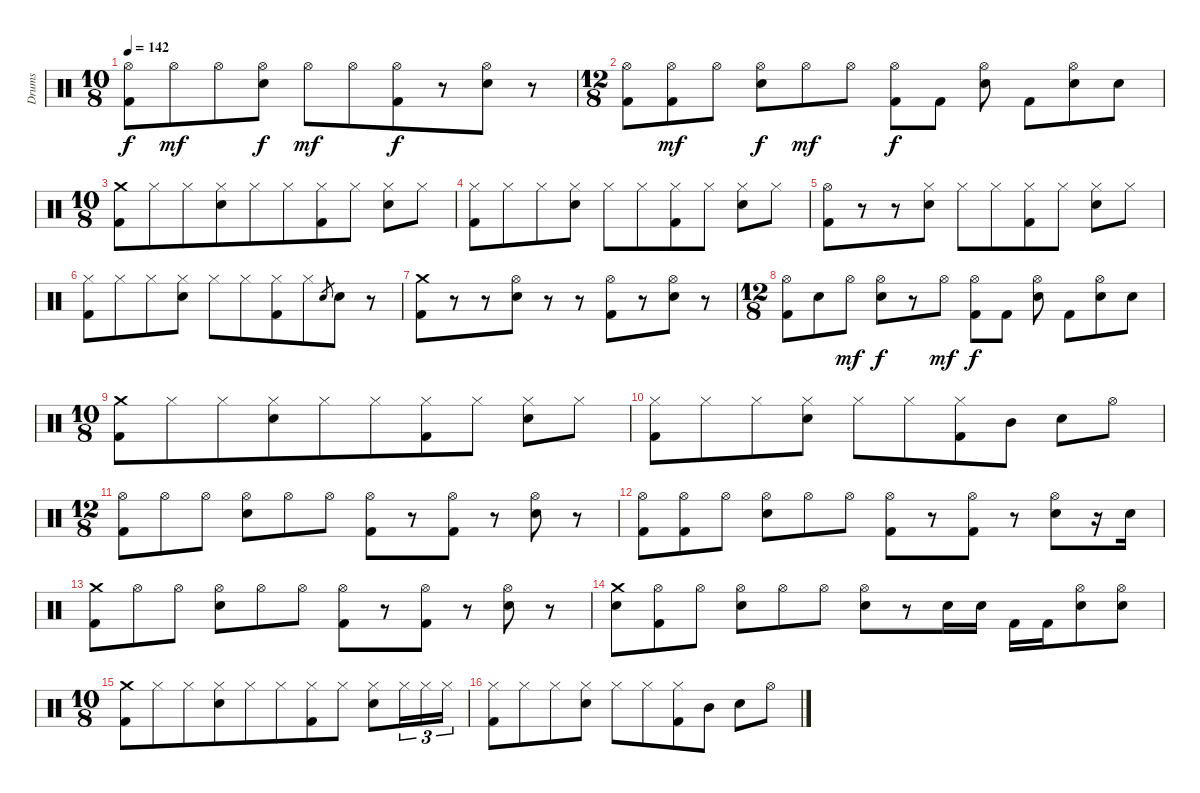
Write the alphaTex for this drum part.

\track ("Drums" "Drums") {instrument percussion}
\staff {score}
\articulation defaults
\ts (10 8)
\tempo 142
\clef neutral
\ks c
("Hi-Hat (open)" "Kick (hit) 2").8{dy f} "Hi-Hat (open)".8{dy mf} "Hi-Hat (open)".8 ("Hi-Hat (open)" "Electric Snare (hit)").8{dy f} "Hi-Hat (open)".8{dy mf} "Hi-Hat (open)".8 ("Hi-Hat (open)" "Kick (hit) 2").8{dy f beam merge} r.8{beam split} ("Hi-Hat (open)" "Electric Snare (hit)").8 r.8 |
\ts (12 8)
("Hi-Hat (open)" "Kick (hit) 2").8 ("Hi-Hat (open)" "Kick (hit) 2").8{dy mf} "Hi-Hat (open)".8 ("Hi-Hat (open)" "Electric Snare (hit)").8{dy f} "Hi-Hat (open)".8{dy mf} "Hi-Hat (open)".8 ("Hi-Hat (open)" "Kick (hit) 2").8{dy f beam merge} "Kick (hit) 2".8{beam split} ("Hi-Hat (open)" "Electric Snare (hit)").8 "Kick (hit) 2".8 ("Hi-Hat (open)" "Electric Snare (hit)").8 "Electric Snare (hit)".8 |
\ts (10 8)
("Crash medium (hit)" "Kick (hit) 2").8{beam merge} "Hi-Hat (closed)".8{beam merge} "Hi-Hat (closed)".8 ("Hi-Hat (closed)" "Electric Snare (hit)").8{beam merge} "Hi-Hat (closed)".8{beam merge} "Hi-Hat (closed)".8 ("Hi-Hat (closed)" "Kick (hit) 2").8{beam merge} "Hi-Hat (closed)".8{beam split} ("Hi-Hat (closed)" "Electric Snare (hit)").8{beam merge} "Hi-Hat (closed)".8 |
("Hi-Hat (closed)" "Kick (hit) 2").8 "Hi-Hat (closed)".8 "Hi-Hat (closed)".8 ("Hi-Hat (closed)" "Electric Snare (hit)").8 "Hi-Hat (closed)".8 "Hi-Hat (closed)".8 ("Hi-Hat (closed)" "Kick (hit) 2").8{beam merge} "Hi-Hat (closed)".8{beam split} ("Hi-Hat (closed)" "Electric Snare (hit)").8 "Hi-Hat (closed)".8 |
("Hi-Hat (open)" "Kick (hit) 2").8 r.8 r.8 ("Hi-Hat (closed)" "Electric Snare (hit)").8 "Hi-Hat (closed)".8 "Hi-Hat (closed)".8 ("Hi-Hat (closed)" "Kick (hit) 2").8{beam merge} "Hi-Hat (closed)".8{beam split} ("Hi-Hat (closed)" "Electric Snare (hit)").8{beam merge} "Hi-Hat (closed)".8 |
("Hi-Hat (closed)" "Kick (hit) 2").8 "Hi-Hat (closed)".8 "Hi-Hat (closed)".8 ("Hi-Hat (closed)" "Electric Snare (hit)").8 "Hi-Hat (closed)".8 "Hi-Hat (closed)".8 ("Hi-Hat (closed)" "Kick (hit) 2").8{beam merge} "Hi-Hat (closed)".8 "Electric Snare (hit)".8{gr beam split} "Electric Snare (hit)".8 r.8 |
("Crash medium (hit)" "Kick (hit) 2").8 r.8 r.8 ("Hi-Hat (open)" "Electric Snare (hit)").8 r.8 r.8 ("Hi-Hat (open)" "Kick (hit) 2").8{beam merge} r.8{beam split} ("Hi-Hat (open)" "Electric Snare (hit)").8 r.8 |
\ts (12 8)
("Hi-Hat (open)" "Kick (hit) 2").8 "Electric Snare (hit)".8 "Hi-Hat (open)".8{dy mf} ("Hi-Hat (open)" "Electric Snare (hit)").8{dy f} r.8 "Hi-Hat (open)".8{dy mf} ("Hi-Hat (open)" "Kick (hit) 2").8{dy f} "Kick (hit) 2".8{beam split} ("Hi-Hat (open)" "Electric Snare (hit)").8 "Kick (hit) 2".8 ("Hi-Hat (open)" "Electric Snare (hit)").8 "Electric Snare (hit)".8 |
\ts (10 8)
("Crash medium (hit)" "Kick (hit) 2").8{beam merge} "Hi-Hat (closed)".8{beam merge} "Hi-Hat (closed)".8 ("Hi-Hat (closed)" "Electric Snare (hit)").8{beam merge} "Hi-Hat (closed)".8{beam merge} "Hi-Hat (closed)".8 ("Hi-Hat (closed)" "Kick (hit) 2").8{beam merge} "Hi-Hat (closed)".8{beam split} ("Hi-Hat (closed)" "Electric Snare (hit)").8{beam merge} "Hi-Hat (closed)".8 |
("Hi-Hat (closed)" "Kick (hit) 2").8 "Hi-Hat (closed)".8 "Hi-Hat (closed)".8 ("Hi-Hat (closed)" "Electric Snare (hit)").8 "Hi-Hat (closed)".8 "Hi-Hat (closed)".8 ("Hi-Hat (closed)" "Kick (hit) 2").8{beam merge} "Mid Tom (hit)".8{beam split} "Electric Snare (hit)".8 "Hi-Hat (open)".8 |
\ts (12 8)
("Hi-Hat (open)" "Kick (hit) 2").8 "Hi-Hat (open)".8 "Hi-Hat (open)".8 ("Hi-Hat (open)" "Electric Snare (hit)").8 "Hi-Hat (open)".8 "Hi-Hat (open)".8 ("Hi-Hat (open)" "Kick (hit) 2").8{beam merge} r.8{beam split} ("Hi-Hat (open)" "Kick (hit) 2").8 r.8 ("Hi-Hat (open)" "Electric Snare (hit)").8 r.8 |
("Hi-Hat (open)" "Kick (hit) 2").8 ("Hi-Hat (open)" "Kick (hit) 2").8 "Hi-Hat (open)".8 ("Hi-Hat (open)" "Electric Snare (hit)").8 "Hi-Hat (open)".8 "Hi-Hat (open)".8 ("Hi-Hat (open)" "Kick (hit) 2").8{beam merge} r.8{beam split} ("Hi-Hat (open)" "Kick (hit) 2").8 r.8 ("Hi-Hat (open)" "Electric Snare (hit)").8 r.16 "Electric Snare (hit)".16 |
("Crash medium (hit)" "Kick (hit) 2").8 "Hi-Hat (open)".8 "Hi-Hat (open)".8 ("Hi-Hat (open)" "Electric Snare (hit)").8 "Hi-Hat (open)".8 "Hi-Hat (open)".8 ("Hi-Hat (open)" "Kick (hit) 2").8{beam merge} r.8{beam split} ("Hi-Hat (open)" "Kick (hit) 2").8 r.8 ("Hi-Hat (open)" "Electric Snare (hit)").8 r.8 |
("Crash medium (hit)" "Electric Snare (hit)").8 ("Hi-Hat (open)" "Kick (hit) 2").8 "Hi-Hat (open)".8 ("Hi-Hat (open)" "Electric Snare (hit)").8 "Hi-Hat (open)".8 "Hi-Hat (open)".8 ("Hi-Hat (open)" "Electric Snare (hit)").8{beam merge} r.8 "Electric Snare (hit)".16 "Electric Snare (hit)".16 "Kick (hit) 2".16 "Kick (hit) 2".16 ("Hi-Hat (open)" "Electric Snare (hit)").8 ("Hi-Hat (open)" "Electric Snare (hit)").8 |
\ts (10 8)
("Crash medium (hit)" "Kick (hit) 2").8{beam merge} "Hi-Hat (closed)".8{beam merge} "Hi-Hat (closed)".8 ("Hi-Hat (closed)" "Electric Snare (hit)").8{beam merge} "Hi-Hat (closed)".8{beam merge} "Hi-Hat (closed)".8 ("Hi-Hat (closed)" "Kick (hit) 2").8{beam merge} "Hi-Hat (closed)".8{beam split} ("Hi-Hat (closed)" "Electric Snare (hit)").8{beam merge} "Hi-Hat (closed)".16{tu (3 2)} "Hi-Hat (closed)".16{tu (3 2)} "Hi-Hat (closed)".16{tu (3 2)} |
("Hi-Hat (closed)" "Kick (hit) 2").8 "Hi-Hat (closed)".8 "Hi-Hat (closed)".8 ("Hi-Hat (closed)" "Electric Snare (hit)").8 "Hi-Hat (closed)".8 "Hi-Hat (closed)".8 ("Hi-Hat (closed)" "Kick (hit) 2").8{beam merge} "Mid Tom (hit)".8{beam split} "Electric Snare (hit)".8 "Hi-Hat (open)".8
